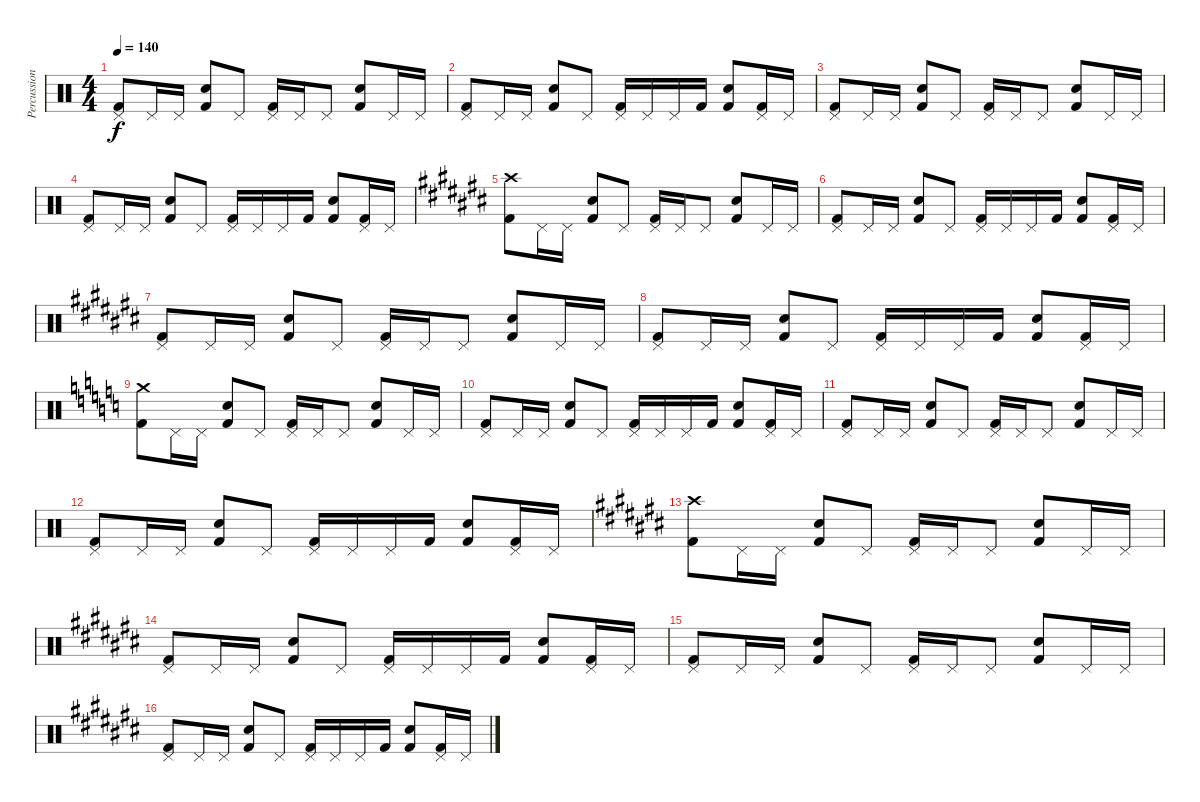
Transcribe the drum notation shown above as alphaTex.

\track ("Percussion" "Percussion") {instrument percussion}
\staff {score}
\articulation defaults
\ts (4 4)
\section ("" "")
\tempo 140
\clef neutral
\ks c
("Pedal Hi-Hat (hit)" "Kick (hit) 2").8{dy f} "Pedal Hi-Hat (hit)".16 "Pedal Hi-Hat (hit)".16 ("Snare (hit) 2" "Kick (hit) 2").8 "Pedal Hi-Hat (hit)".8 ("Pedal Hi-Hat (hit)" "Kick (hit) 2").16 "Pedal Hi-Hat (hit)".16 "Pedal Hi-Hat (hit)".8 ("Snare (hit) 2" "Kick (hit) 2").8 "Pedal Hi-Hat (hit)".16 "Pedal Hi-Hat (hit)".16 |
("Pedal Hi-Hat (hit)" "Kick (hit) 2").8 "Pedal Hi-Hat (hit)".16 "Pedal Hi-Hat (hit)".16 ("Snare (hit) 2" "Kick (hit) 2").8 "Pedal Hi-Hat (hit)".8 ("Pedal Hi-Hat (hit)" "Kick (hit) 2").16 "Pedal Hi-Hat (hit)".16 "Pedal Hi-Hat (hit)".16 "Kick (hit) 2".16 ("Snare (hit) 2" "Kick (hit) 2").8 ("Pedal Hi-Hat (hit)" "Kick (hit) 2").16 "Pedal Hi-Hat (hit)".16 |
("Pedal Hi-Hat (hit)" "Kick (hit) 2").8 "Pedal Hi-Hat (hit)".16 "Pedal Hi-Hat (hit)".16 ("Snare (hit) 2" "Kick (hit) 2").8 "Pedal Hi-Hat (hit)".8 ("Pedal Hi-Hat (hit)" "Kick (hit) 2").16 "Pedal Hi-Hat (hit)".16 "Pedal Hi-Hat (hit)".8 ("Snare (hit) 2" "Kick (hit) 2").8 "Pedal Hi-Hat (hit)".16 "Pedal Hi-Hat (hit)".16 |
("Pedal Hi-Hat (hit)" "Kick (hit) 2").8 "Pedal Hi-Hat (hit)".16 "Pedal Hi-Hat (hit)".16 ("Snare (hit) 2" "Kick (hit) 2").8 "Pedal Hi-Hat (hit)".8 ("Pedal Hi-Hat (hit)" "Kick (hit) 2").16 "Pedal Hi-Hat (hit)".16 "Pedal Hi-Hat (hit)".16 "Kick (hit) 2".16 ("Snare (hit) 2" "Kick (hit) 2").8 ("Pedal Hi-Hat (hit)" "Kick (hit) 2").16 "Pedal Hi-Hat (hit)".16 |
\ks c#
("Crash high (hit)" "Kick (hit) 2").8 "Pedal Hi-Hat (hit)".16 "Pedal Hi-Hat (hit)".16 ("Snare (hit) 2" "Kick (hit) 2").8 "Pedal Hi-Hat (hit)".8 ("Pedal Hi-Hat (hit)" "Kick (hit) 2").16 "Pedal Hi-Hat (hit)".16 "Pedal Hi-Hat (hit)".8 ("Snare (hit) 2" "Kick (hit) 2").8 "Pedal Hi-Hat (hit)".16 "Pedal Hi-Hat (hit)".16 |
("Pedal Hi-Hat (hit)" "Kick (hit) 2").8 "Pedal Hi-Hat (hit)".16 "Pedal Hi-Hat (hit)".16 ("Snare (hit) 2" "Kick (hit) 2").8 "Pedal Hi-Hat (hit)".8 ("Pedal Hi-Hat (hit)" "Kick (hit) 2").16 "Pedal Hi-Hat (hit)".16 "Pedal Hi-Hat (hit)".16 "Kick (hit) 2".16 ("Snare (hit) 2" "Kick (hit) 2").8 ("Pedal Hi-Hat (hit)" "Kick (hit) 2").16 "Pedal Hi-Hat (hit)".16 |
("Pedal Hi-Hat (hit)" "Kick (hit) 2").8 "Pedal Hi-Hat (hit)".16 "Pedal Hi-Hat (hit)".16 ("Snare (hit) 2" "Kick (hit) 2").8 "Pedal Hi-Hat (hit)".8 ("Pedal Hi-Hat (hit)" "Kick (hit) 2").16 "Pedal Hi-Hat (hit)".16 "Pedal Hi-Hat (hit)".8 ("Snare (hit) 2" "Kick (hit) 2").8 "Pedal Hi-Hat (hit)".16 "Pedal Hi-Hat (hit)".16 |
("Pedal Hi-Hat (hit)" "Kick (hit) 2").8 "Pedal Hi-Hat (hit)".16 "Pedal Hi-Hat (hit)".16 ("Snare (hit) 2" "Kick (hit) 2").8 "Pedal Hi-Hat (hit)".8 ("Pedal Hi-Hat (hit)" "Kick (hit) 2").16 "Pedal Hi-Hat (hit)".16 "Pedal Hi-Hat (hit)".16 "Kick (hit) 2".16 ("Snare (hit) 2" "Kick (hit) 2").8 ("Pedal Hi-Hat (hit)" "Kick (hit) 2").16 "Pedal Hi-Hat (hit)".16 |
\ks c
("Crash medium (hit)" "Kick (hit) 2").8 "Pedal Hi-Hat (hit)".16 "Pedal Hi-Hat (hit)".16 ("Snare (hit) 2" "Kick (hit) 2").8 "Pedal Hi-Hat (hit)".8 ("Pedal Hi-Hat (hit)" "Kick (hit) 2").16 "Pedal Hi-Hat (hit)".16 "Pedal Hi-Hat (hit)".8 ("Snare (hit) 2" "Kick (hit) 2").8 "Pedal Hi-Hat (hit)".16 "Pedal Hi-Hat (hit)".16 |
("Pedal Hi-Hat (hit)" "Kick (hit) 2").8 "Pedal Hi-Hat (hit)".16 "Pedal Hi-Hat (hit)".16 ("Snare (hit) 2" "Kick (hit) 2").8 "Pedal Hi-Hat (hit)".8 ("Pedal Hi-Hat (hit)" "Kick (hit) 2").16 "Pedal Hi-Hat (hit)".16 "Pedal Hi-Hat (hit)".16 "Kick (hit) 2".16 ("Snare (hit) 2" "Kick (hit) 2").8 ("Pedal Hi-Hat (hit)" "Kick (hit) 2").16 "Pedal Hi-Hat (hit)".16 |
("Pedal Hi-Hat (hit)" "Kick (hit) 2").8 "Pedal Hi-Hat (hit)".16 "Pedal Hi-Hat (hit)".16 ("Snare (hit) 2" "Kick (hit) 2").8 "Pedal Hi-Hat (hit)".8 ("Pedal Hi-Hat (hit)" "Kick (hit) 2").16 "Pedal Hi-Hat (hit)".16 "Pedal Hi-Hat (hit)".8 ("Snare (hit) 2" "Kick (hit) 2").8 "Pedal Hi-Hat (hit)".16 "Pedal Hi-Hat (hit)".16 |
("Pedal Hi-Hat (hit)" "Kick (hit) 2").8 "Pedal Hi-Hat (hit)".16 "Pedal Hi-Hat (hit)".16 ("Snare (hit) 2" "Kick (hit) 2").8 "Pedal Hi-Hat (hit)".8 ("Pedal Hi-Hat (hit)" "Kick (hit) 2").16 "Pedal Hi-Hat (hit)".16 "Pedal Hi-Hat (hit)".16 "Kick (hit) 2".16 ("Snare (hit) 2" "Kick (hit) 2").8 ("Pedal Hi-Hat (hit)" "Kick (hit) 2").16 "Pedal Hi-Hat (hit)".16 |
\ks c#
("Crash high (hit)" "Kick (hit) 2").8 "Pedal Hi-Hat (hit)".16 "Pedal Hi-Hat (hit)".16 ("Snare (hit) 2" "Kick (hit) 2").8 "Pedal Hi-Hat (hit)".8 ("Pedal Hi-Hat (hit)" "Kick (hit) 2").16 "Pedal Hi-Hat (hit)".16 "Pedal Hi-Hat (hit)".8 ("Snare (hit) 2" "Kick (hit) 2").8 "Pedal Hi-Hat (hit)".16 "Pedal Hi-Hat (hit)".16 |
("Pedal Hi-Hat (hit)" "Kick (hit) 2").8 "Pedal Hi-Hat (hit)".16 "Pedal Hi-Hat (hit)".16 ("Snare (hit) 2" "Kick (hit) 2").8 "Pedal Hi-Hat (hit)".8 ("Pedal Hi-Hat (hit)" "Kick (hit) 2").16 "Pedal Hi-Hat (hit)".16 "Pedal Hi-Hat (hit)".16 "Kick (hit) 2".16 ("Snare (hit) 2" "Kick (hit) 2").8 ("Pedal Hi-Hat (hit)" "Kick (hit) 2").16 "Pedal Hi-Hat (hit)".16 |
("Pedal Hi-Hat (hit)" "Kick (hit) 2").8 "Pedal Hi-Hat (hit)".16 "Pedal Hi-Hat (hit)".16 ("Snare (hit) 2" "Kick (hit) 2").8 "Pedal Hi-Hat (hit)".8 ("Pedal Hi-Hat (hit)" "Kick (hit) 2").16 "Pedal Hi-Hat (hit)".16 "Pedal Hi-Hat (hit)".8 ("Snare (hit) 2" "Kick (hit) 2").8 "Pedal Hi-Hat (hit)".16 "Pedal Hi-Hat (hit)".16 |
("Pedal Hi-Hat (hit)" "Kick (hit) 2").8 "Pedal Hi-Hat (hit)".16 "Pedal Hi-Hat (hit)".16 ("Snare (hit) 2" "Kick (hit) 2").8 "Pedal Hi-Hat (hit)".8 ("Pedal Hi-Hat (hit)" "Kick (hit) 2").16 "Pedal Hi-Hat (hit)".16 "Pedal Hi-Hat (hit)".16 "Kick (hit) 2".16 ("Snare (hit) 2" "Kick (hit) 2").8 ("Pedal Hi-Hat (hit)" "Kick (hit) 2").16 "Pedal Hi-Hat (hit)".16
